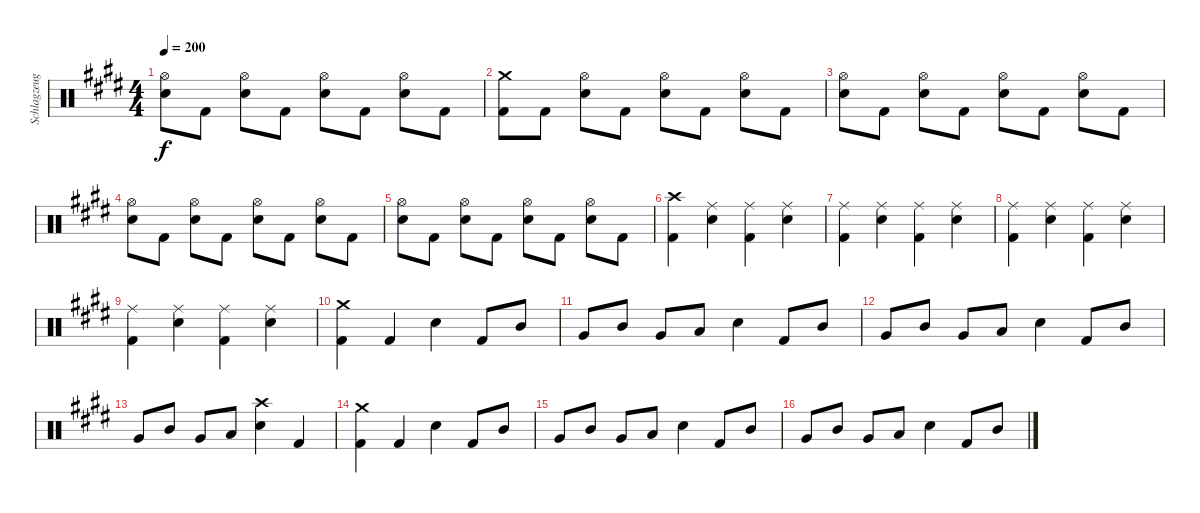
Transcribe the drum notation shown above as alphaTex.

\track ("Schlagzeug" "Schlagzeug") {instrument percussion}
\staff {score}
\articulation defaults
\ts (4 4)
\tempo 200
\clef neutral
\ks e
("Hi-Hat (open)" "Snare (hit) 2").8{dy f} "Kick (hit) 2".8 ("Hi-Hat (open)" "Snare (hit) 2").8 "Kick (hit) 2".8 ("Hi-Hat (open)" "Snare (hit) 2").8 "Kick (hit) 2".8 ("Hi-Hat (open)" "Snare (hit) 2").8 "Kick (hit) 2".8 |
("Crash medium (hit)" "Kick (hit) 2").8 "Kick (hit) 2".8 ("Hi-Hat (open)" "Snare (hit) 2").8 "Kick (hit) 2".8 ("Hi-Hat (open)" "Snare (hit) 2").8 "Kick (hit) 2".8 ("Hi-Hat (open)" "Snare (hit) 2").8 "Kick (hit) 2".8 |
("Hi-Hat (open)" "Snare (hit) 2").8 "Kick (hit) 2".8 ("Hi-Hat (open)" "Snare (hit) 2").8 "Kick (hit) 2".8 ("Hi-Hat (open)" "Snare (hit) 2").8 "Kick (hit) 2".8 ("Hi-Hat (open)" "Snare (hit) 2").8 "Kick (hit) 2".8 |
("Hi-Hat (open)" "Snare (hit) 2").8 "Kick (hit) 2".8 ("Hi-Hat (open)" "Snare (hit) 2").8 "Kick (hit) 2".8 ("Hi-Hat (open)" "Snare (hit) 2").8 "Kick (hit) 2".8 ("Hi-Hat (open)" "Snare (hit) 2").8 "Kick (hit) 2".8 |
("Hi-Hat (open)" "Snare (hit) 2").8 "Kick (hit) 2".8 ("Hi-Hat (open)" "Snare (hit) 2").8 "Kick (hit) 2".8 ("Hi-Hat (open)" "Snare (hit) 2").8 "Kick (hit) 2".8 ("Hi-Hat (open)" "Snare (hit) 2").8 "Kick (hit) 2".8 |
("Crash high (hit)" "Kick (hit) 2").4 ("Ride (middle)" "Snare (hit) 2").4 ("Ride (middle)" "Kick (hit) 2").4 ("Ride (middle)" "Snare (hit) 2").4 |
("Ride (middle)" "Kick (hit) 2").4 ("Ride (middle)" "Snare (hit) 2").4 ("Ride (middle)" "Kick (hit) 2").4 ("Ride (middle)" "Snare (hit) 2").4 |
("Ride (middle)" "Kick (hit) 2").4 ("Ride (middle)" "Snare (hit) 2").4 ("Ride (middle)" "Kick (hit) 2").4 ("Ride (middle)" "Snare (hit) 2").4 |
("Ride (middle)" "Kick (hit) 2").4 ("Ride (middle)" "Snare (hit) 2").4 ("Ride (middle)" "Kick (hit) 2").4 ("Ride (middle)" "Snare (hit) 2").4 |
("Crash medium (hit)" "Kick (hit) 2").4 "Kick (hit) 2".4 "Snare (hit) 2".4 "Kick (hit) 2".8 "Mid Tom (hit)".8 |
"Very Low Tom (hit)".8 "Mid Tom (hit)".8 "Very Low Tom (hit)".8 "Low Floor Tom (hit)".8 "Snare (hit) 2".4 "Kick (hit) 2".8 "Mid Tom (hit)".8 |
"Very Low Tom (hit)".8 "Mid Tom (hit)".8 "Very Low Tom (hit)".8 "Low Floor Tom (hit)".8 "Snare (hit) 2".4 "Kick (hit) 2".8 "Mid Tom (hit)".8 |
"Very Low Tom (hit)".8 "Mid Tom (hit)".8 "Very Low Tom (hit)".8 "Low Floor Tom (hit)".8 ("Crash high (hit)" "Snare (hit) 2").4 "Kick (hit) 2".4 |
("Crash medium (hit)" "Kick (hit) 2").4 "Kick (hit) 2".4 "Snare (hit) 2".4 "Kick (hit) 2".8 "Mid Tom (hit)".8 |
"Very Low Tom (hit)".8 "Mid Tom (hit)".8 "Very Low Tom (hit)".8 "Low Floor Tom (hit)".8 "Snare (hit) 2".4 "Kick (hit) 2".8 "Mid Tom (hit)".8 |
"Very Low Tom (hit)".8 "Mid Tom (hit)".8 "Very Low Tom (hit)".8 "Low Floor Tom (hit)".8 "Snare (hit) 2".4 "Kick (hit) 2".8 "Mid Tom (hit)".8
